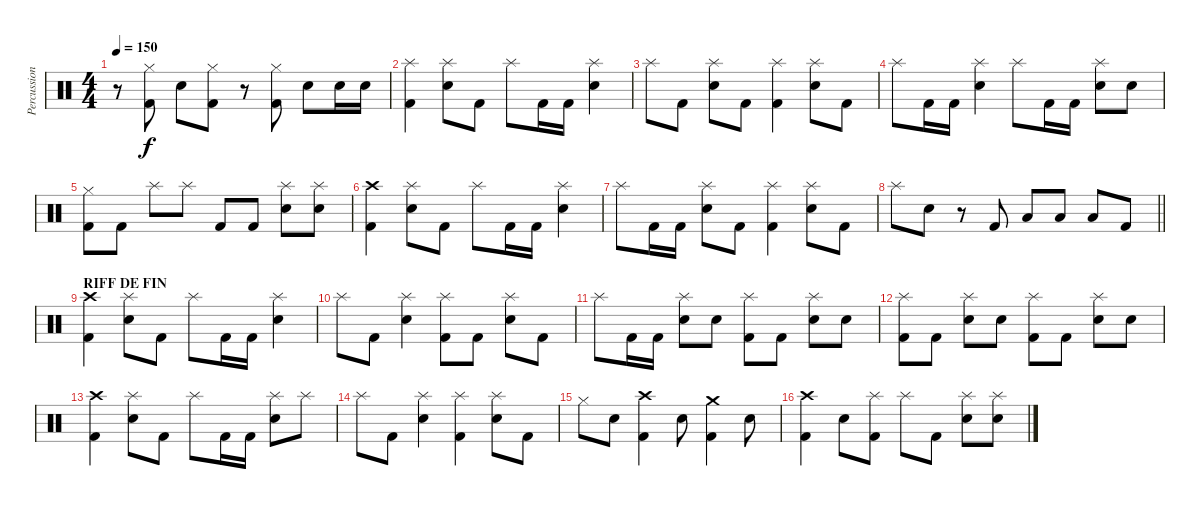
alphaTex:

\track ("Percussion" "Percussion") {instrument percussion}
\staff {score}
\articulation defaults
\ts (4 4)
\tempo 150
\clef neutral
\ks c
r.8{dy f} ("Kick (hit) 2" "Hi-Hat (closed)").8 "Electric Snare (hit)".8 ("Kick (hit) 2" "Hi-Hat (closed)").8 r.8 ("Kick (hit) 2" "Hi-Hat (closed)").8 "Electric Snare (hit)".8 "Electric Snare (hit)".16 "Electric Snare (hit)".16 |
("Kick (hit) 2" "Splash (hit)").4 ("Electric Snare (hit)" "Splash (hit)").8 "Kick (hit) 2".8 "Splash (hit)".8 "Kick (hit) 2".16 "Kick (hit) 2".16 ("Electric Snare (hit)" "Splash (hit)").4 |
"Splash (hit)".8 "Kick (hit) 2".8 ("Electric Snare (hit)" "Splash (hit)").8 "Kick (hit) 2".8 ("Kick (hit) 2" "Splash (hit)").4 ("Electric Snare (hit)" "Splash (hit)").8 "Kick (hit) 2".8 |
"Splash (hit)".8 "Kick (hit) 2".16 "Kick (hit) 2".16 ("Electric Snare (hit)" "Splash (hit)").4 "Splash (hit)".8 "Kick (hit) 2".16 "Kick (hit) 2".16 ("Electric Snare (hit)" "Splash (hit)").8 "Electric Snare (hit)".8 |
("Kick (hit) 2" "Hi-Hat (closed)").8 "Kick (hit) 2".8 "Splash (hit)".8 "Splash (hit)".8 "Kick (hit) 2".8 "Kick (hit) 2".8 ("Electric Snare (hit)" "Splash (hit)").8 ("Electric Snare (hit)" "Splash (hit)").8 |
("Kick (hit) 2" "Crash high (hit)").4 ("Electric Snare (hit)" "Splash (hit)").8 "Kick (hit) 2".8 "Splash (hit)".8 "Kick (hit) 2".16 "Kick (hit) 2".16 ("Electric Snare (hit)" "Splash (hit)").4 |
"Splash (hit)".8 "Kick (hit) 2".16 "Kick (hit) 2".16 ("Electric Snare (hit)" "Splash (hit)").8 "Kick (hit) 2".8 ("Kick (hit) 2" "Splash (hit)").4 ("Electric Snare (hit)" "Splash (hit)").8 "Kick (hit) 2".8 |
\barLineRight lightlight "Splash (hit)".8 "Electric Snare (hit)".8
r.8 "Kick (hit) 2".8 "Low Tom (hit)".8 "Low Tom (hit)".8 "Low Floor Tom (hit)".8 "Kick (hit) 2".8 |
\section ("" "RIFF DE FIN")
("Kick (hit) 2" "Crash high (hit)").4 ("Electric Snare (hit)" "Splash (hit)").8 "Kick (hit) 2".8 "Splash (hit)".8 "Kick (hit) 2".16 "Kick (hit) 2".16 ("Electric Snare (hit)" "Splash (hit)").4 |
"Splash (hit)".8 "Kick (hit) 2".8 ("Electric Snare (hit)" "Splash (hit)").4 ("Kick (hit) 2" "Splash (hit)").8 "Kick (hit) 2".8 ("Electric Snare (hit)" "Splash (hit)").8 "Kick (hit) 2".8 |
"Splash (hit)".8 "Kick (hit) 2".16 "Kick (hit) 2".16 ("Electric Snare (hit)" "Splash (hit)").8 "Electric Snare (hit)".8 ("Kick (hit) 2" "Splash (hit)").8 "Kick (hit) 2".8 ("Electric Snare (hit)" "Splash (hit)").8 "Electric Snare (hit)".8 |
("Kick (hit) 2" "Splash (hit)").8 "Kick (hit) 2".8 ("Electric Snare (hit)" "Splash (hit)").8 "Electric Snare (hit)".8 ("Kick (hit) 2" "Splash (hit)").8 "Kick (hit) 2".8 ("Electric Snare (hit)" "Splash (hit)").8 "Electric Snare (hit)".8 |
("Kick (hit) 2" "Crash high (hit)").4 ("Electric Snare (hit)" "Splash (hit)").8 "Kick (hit) 2".8 "Splash (hit)".8 "Kick (hit) 2".16 "Kick (hit) 2".16 ("Electric Snare (hit)" "Splash (hit)").8 "Splash (hit)".8 |
"Splash (hit)".8 "Kick (hit) 2".8 ("Electric Snare (hit)" "Splash (hit)").4 ("Kick (hit) 2" "Splash (hit)").4 ("Electric Snare (hit)" "Splash (hit)").8 "Kick (hit) 2".8 |
"Hi-Hat (closed)".8 "Electric Snare (hit)".8 ("Kick (hit) 2" "Crash high (hit)").4 "Electric Snare (hit)".8 ("Kick (hit) 2" "Crash medium (hit)").4 "Electric Snare (hit)".8 |
("Kick (hit) 2" "Crash high (hit)").4 "Electric Snare (hit)".8 ("Kick (hit) 2" "Splash (hit)").8 "Splash (hit)".8 "Kick (hit) 2".8 ("Electric Snare (hit)" "Splash (hit)").8 ("Electric Snare (hit)" "Splash (hit)").8
